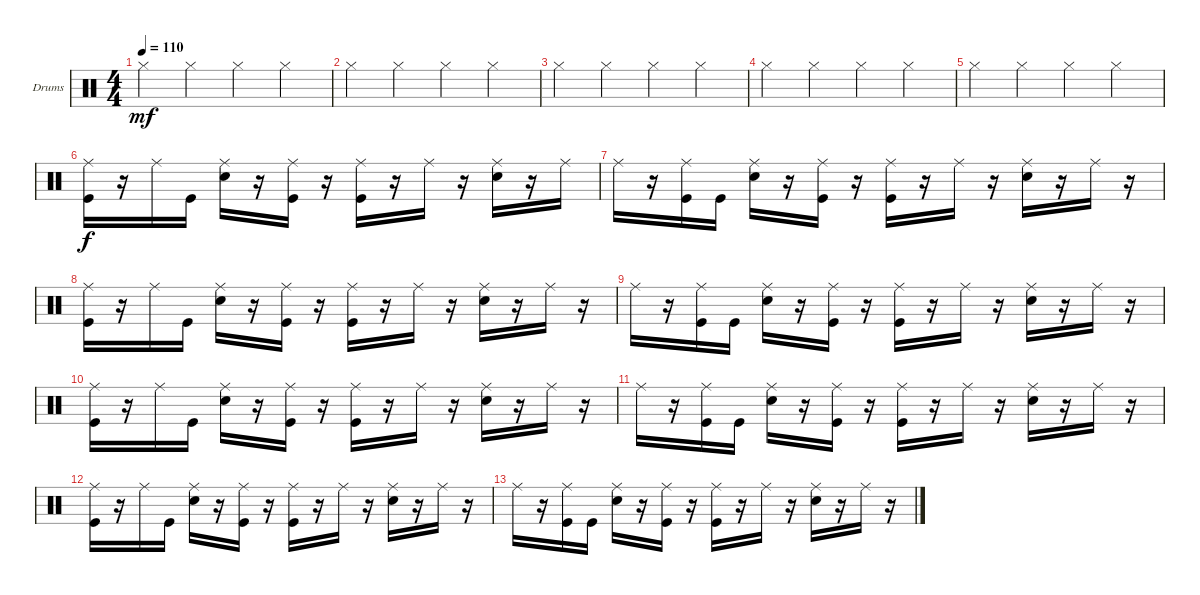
\defaultSystemsLayout 4
\bracketExtendMode groupsimilarinstruments
\firstSystemTrackNameOrientation horizontal
\otherSystemsTrackNameOrientation horizontal
\track ("Drumkit" "Drums") {instrument percussion}
\staff {score}
\articulation defaults
\ts (4 4)
\tempo 110
\clef neutral
\ks c "Hi-Hat (closed)".4{dy mf} "Hi-Hat (closed)".4 "Hi-Hat (closed)".4 "Hi-Hat (closed)".4
|
"Hi-Hat (closed)".4 "Hi-Hat (closed)".4 "Hi-Hat (closed)".4 "Hi-Hat (closed)".4 |
"Hi-Hat (closed)".4 "Hi-Hat (closed)".4 "Hi-Hat (closed)".4 "Hi-Hat (closed)".4 |
"Hi-Hat (closed)".4 "Hi-Hat (closed)".4 "Hi-Hat (closed)".4 "Hi-Hat (closed)".4 |
"Hi-Hat (closed)".4 "Hi-Hat (closed)".4 "Hi-Hat (closed)".4 "Hi-Hat (closed)".4 |
("Kick (hit)" "Ride (middle)").16{dy f} r.16 "Ride (middle)".16 "Kick (hit)".16 ("Snare (hit) 2" "Ride (middle)").16 r.16 ("Kick (hit)" "Ride (middle)").16 r.16 ("Kick (hit)" "Ride (middle)").16 r.16 "Ride (middle)".16 r.16 ("Ride (middle)" "Snare (hit) 2").16 r.16 "Ride (middle)".16 |
"Ride (middle)".16 r.16 ("Ride (middle)" "Kick (hit)").16 "Kick (hit)".16 ("Ride (middle)" "Snare (hit) 2").16 r.16 ("Ride (middle)" "Kick (hit)").16 r.16 ("Ride (middle)" "Kick (hit)").16 r.16 "Ride (middle)".16 r.16 ("Ride (middle)" "Snare (hit) 2").16 r.16 "Ride (middle)".16 r.16 |
("Kick (hit)" "Ride (middle)").16 r.16 "Ride (middle)".16 "Kick (hit)".16 ("Snare (hit) 2" "Ride (middle)").16 r.16 ("Kick (hit)" "Ride (middle)").16 r.16 ("Kick (hit)" "Ride (middle)").16 r.16 "Ride (middle)".16 r.16 ("Ride (middle)" "Snare (hit) 2").16 r.16 "Ride (middle)".16 r.16 |
"Ride (middle)".16 r.16 ("Ride (middle)" "Kick (hit)").16 "Kick (hit)".16 ("Ride (middle)" "Snare (hit) 2").16 r.16 ("Ride (middle)" "Kick (hit)").16 r.16 ("Ride (middle)" "Kick (hit)").16 r.16 "Ride (middle)".16 r.16 ("Ride (middle)" "Snare (hit) 2").16 r.16 "Ride (middle)".16 r.16 |
("Kick (hit)" "Ride (middle)").16 r.16 "Ride (middle)".16 "Kick (hit)".16 ("Snare (hit) 2" "Ride (middle)").16 r.16 ("Kick (hit)" "Ride (middle)").16 r.16 ("Kick (hit)" "Ride (middle)").16 r.16 "Ride (middle)".16 r.16 ("Ride (middle)" "Snare (hit) 2").16 r.16 "Ride (middle)".16 r.16 |
"Ride (middle)".16 r.16 ("Ride (middle)" "Kick (hit)").16 "Kick (hit)".16 ("Ride (middle)" "Snare (hit) 2").16 r.16 ("Ride (middle)" "Kick (hit)").16 r.16 ("Ride (middle)" "Kick (hit)").16 r.16 "Ride (middle)".16 r.16 ("Ride (middle)" "Snare (hit) 2").16 r.16 "Ride (middle)".16 r.16 |
("Kick (hit)" "Ride (middle)").16 r.16 "Ride (middle)".16 "Kick (hit)".16 ("Snare (hit) 2" "Ride (middle)").16 r.16 ("Kick (hit)" "Ride (middle)").16 r.16 ("Kick (hit)" "Ride (middle)").16 r.16 "Ride (middle)".16 r.16 ("Ride (middle)" "Snare (hit) 2").16 r.16 "Ride (middle)".16 r.16 |
"Ride (middle)".16 r.16 ("Ride (middle)" "Kick (hit)").16 "Kick (hit)".16 ("Ride (middle)" "Snare (hit) 2").16 r.16 ("Ride (middle)" "Kick (hit)").16 r.16 ("Ride (middle)" "Kick (hit)").16 r.16 "Ride (middle)".16 r.16 ("Ride (middle)" "Snare (hit) 2").16 r.16 "Ride (middle)".16 r.16
